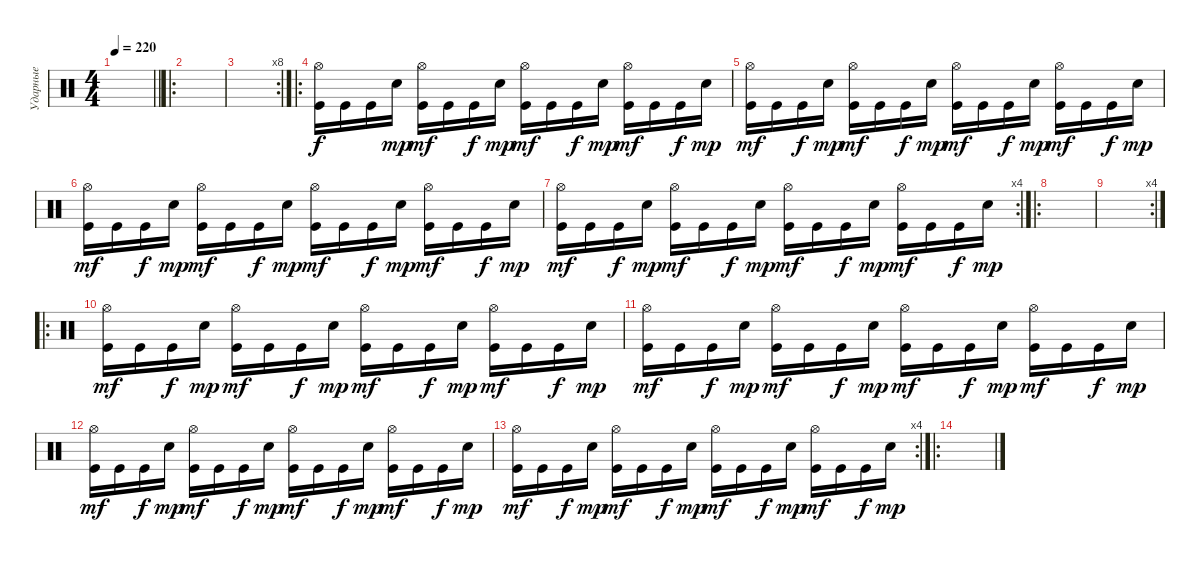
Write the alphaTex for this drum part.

\track ("Ударные" "Ударные") {instrument percussion}
\staff {score}
\articulation defaults
\ts (4 4)
\tempo 220
\clef neutral
\barLineRight lightlight
\ks c
|
\ro
|
\rc 8
|
\ro
("Hi-Hat (open)" "Kick (hit)").16 "Kick (hit)".16 "Kick (hit)".16{dy f} "Electric Snare (hit)".16{dy mp} ("Hi-Hat (open)" "Kick (hit)").16{dy mf} "Kick (hit)".16 "Kick (hit)".16{dy f} "Electric Snare (hit)".16{dy mp} ("Hi-Hat (open)" "Kick (hit)").16{dy mf} "Kick (hit)".16 "Kick (hit)".16{dy f} "Electric Snare (hit)".16{dy mp} ("Hi-Hat (open)" "Kick (hit)").16{dy mf} "Kick (hit)".16 "Kick (hit)".16{dy f} "Electric Snare (hit)".16{dy mp} |
("Hi-Hat (open)" "Kick (hit)").16{dy mf} "Kick (hit)".16 "Kick (hit)".16{dy f} "Electric Snare (hit)".16{dy mp} ("Hi-Hat (open)" "Kick (hit)").16{dy mf} "Kick (hit)".16 "Kick (hit)".16{dy f} "Electric Snare (hit)".16{dy mp} ("Hi-Hat (open)" "Kick (hit)").16{dy mf} "Kick (hit)".16 "Kick (hit)".16{dy f} "Electric Snare (hit)".16{dy mp} ("Hi-Hat (open)" "Kick (hit)").16{dy mf} "Kick (hit)".16 "Kick (hit)".16{dy f} "Electric Snare (hit)".16{dy mp} |
("Hi-Hat (open)" "Kick (hit)").16{dy mf} "Kick (hit)".16 "Kick (hit)".16{dy f} "Electric Snare (hit)".16{dy mp} ("Hi-Hat (open)" "Kick (hit)").16{dy mf} "Kick (hit)".16 "Kick (hit)".16{dy f} "Electric Snare (hit)".16{dy mp} ("Hi-Hat (open)" "Kick (hit)").16{dy mf} "Kick (hit)".16 "Kick (hit)".16{dy f} "Electric Snare (hit)".16{dy mp} ("Hi-Hat (open)" "Kick (hit)").16{dy mf} "Kick (hit)".16 "Kick (hit)".16{dy f} "Electric Snare (hit)".16{dy mp} |
\rc 4
("Hi-Hat (open)" "Kick (hit)").16{dy mf} "Kick (hit)".16 "Kick (hit)".16{dy f} "Electric Snare (hit)".16{dy mp} ("Hi-Hat (open)" "Kick (hit)").16{dy mf} "Kick (hit)".16 "Kick (hit)".16{dy f} "Electric Snare (hit)".16{dy mp} ("Hi-Hat (open)" "Kick (hit)").16{dy mf} "Kick (hit)".16 "Kick (hit)".16{dy f} "Electric Snare (hit)".16{dy mp} ("Hi-Hat (open)" "Kick (hit)").16{dy mf} "Kick (hit)".16 "Kick (hit)".16{dy f} "Electric Snare (hit)".16{dy mp} |
\ro
|
\rc 4
|
\ro
("Hi-Hat (open)" "Kick (hit)").16{dy mf} "Kick (hit)".16 "Kick (hit)".16{dy f} "Electric Snare (hit)".16{dy mp} ("Hi-Hat (open)" "Kick (hit)").16{dy mf} "Kick (hit)".16 "Kick (hit)".16{dy f} "Electric Snare (hit)".16{dy mp} ("Hi-Hat (open)" "Kick (hit)").16{dy mf} "Kick (hit)".16 "Kick (hit)".16{dy f} "Electric Snare (hit)".16{dy mp} ("Hi-Hat (open)" "Kick (hit)").16{dy mf} "Kick (hit)".16 "Kick (hit)".16{dy f} "Electric Snare (hit)".16{dy mp} |
("Hi-Hat (open)" "Kick (hit)").16{dy mf} "Kick (hit)".16 "Kick (hit)".16{dy f} "Electric Snare (hit)".16{dy mp} ("Hi-Hat (open)" "Kick (hit)").16{dy mf} "Kick (hit)".16 "Kick (hit)".16{dy f} "Electric Snare (hit)".16{dy mp} ("Hi-Hat (open)" "Kick (hit)").16{dy mf} "Kick (hit)".16 "Kick (hit)".16{dy f} "Electric Snare (hit)".16{dy mp} ("Hi-Hat (open)" "Kick (hit)").16{dy mf} "Kick (hit)".16 "Kick (hit)".16{dy f} "Electric Snare (hit)".16{dy mp} |
("Hi-Hat (open)" "Kick (hit)").16{dy mf} "Kick (hit)".16 "Kick (hit)".16{dy f} "Electric Snare (hit)".16{dy mp} ("Hi-Hat (open)" "Kick (hit)").16{dy mf} "Kick (hit)".16 "Kick (hit)".16{dy f} "Electric Snare (hit)".16{dy mp} ("Hi-Hat (open)" "Kick (hit)").16{dy mf} "Kick (hit)".16 "Kick (hit)".16{dy f} "Electric Snare (hit)".16{dy mp} ("Hi-Hat (open)" "Kick (hit)").16{dy mf} "Kick (hit)".16 "Kick (hit)".16{dy f} "Electric Snare (hit)".16{dy mp} |
\rc 4
("Hi-Hat (open)" "Kick (hit)").16{dy mf} "Kick (hit)".16 "Kick (hit)".16{dy f} "Electric Snare (hit)".16{dy mp} ("Hi-Hat (open)" "Kick (hit)").16{dy mf} "Kick (hit)".16 "Kick (hit)".16{dy f} "Electric Snare (hit)".16{dy mp} ("Hi-Hat (open)" "Kick (hit)").16{dy mf} "Kick (hit)".16 "Kick (hit)".16{dy f} "Electric Snare (hit)".16{dy mp} ("Hi-Hat (open)" "Kick (hit)").16{dy mf} "Kick (hit)".16 "Kick (hit)".16{dy f} "Electric Snare (hit)".16{dy mp} |
\ro
